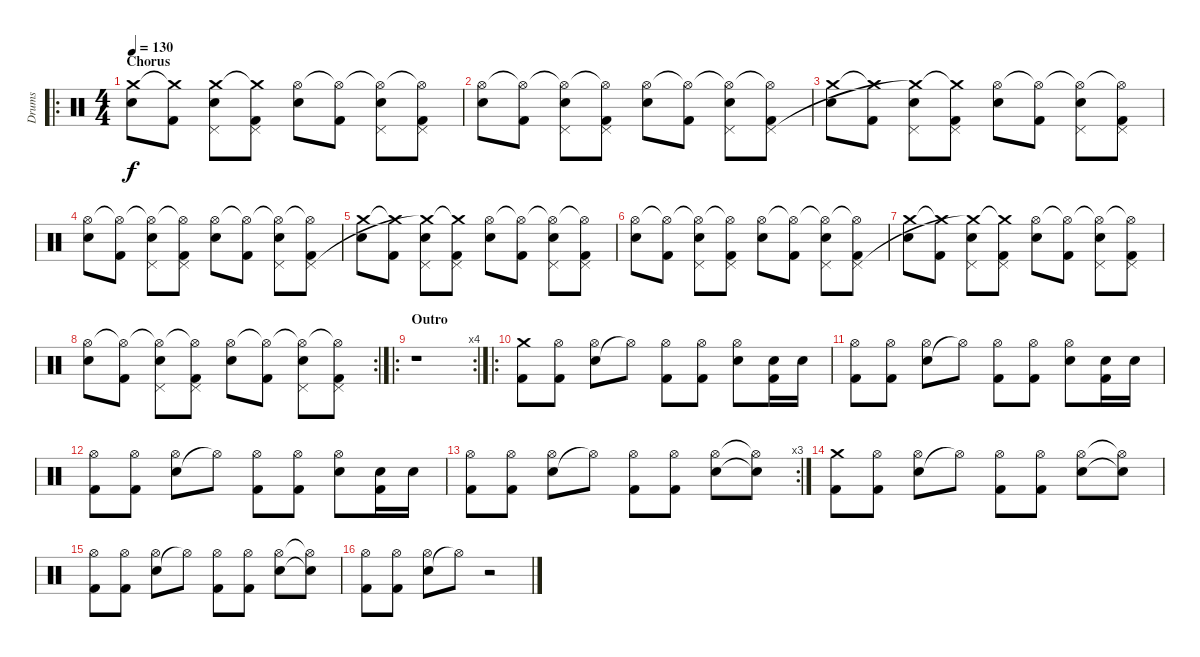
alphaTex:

\track ("Drums" "Drums") {instrument percussion}
\staff {score}
\articulation defaults
\ro
\ts (4 4)
\section ("" "Chorus")
\tempo 130
\clef neutral
\ks c
("Electric Snare (hit)" "Crash medium (hit)").8{dy f} ("Kick (hit) 2" "Crash medium (hit)"{t}).8 ("Electric Snare (hit)" "Pedal Hi-Hat (hit)" "Crash medium (hit)").8 ("Kick (hit) 2" "Pedal Hi-Hat (hit)" "Crash medium (hit)"{t}).8 ("Electric Snare (hit)" "Hi-Hat (open)").8 ("Kick (hit) 2" "Hi-Hat (open)"{t}).8 ("Electric Snare (hit)" "Hi-Hat (open)"{t} "Pedal Hi-Hat (hit)").8 ("Kick (hit) 2" "Hi-Hat (open)"{t} "Pedal Hi-Hat (hit)").8 |
("Electric Snare (hit)" "Hi-Hat (open)").8 ("Kick (hit) 2" "Hi-Hat (open)"{t}).8 ("Electric Snare (hit)" "Hi-Hat (open)"{t} "Pedal Hi-Hat (hit)").8 ("Kick (hit) 2" "Hi-Hat (open)"{t} "Pedal Hi-Hat (hit)").8 ("Electric Snare (hit)" "Hi-Hat (open)").8 ("Kick (hit) 2" "Hi-Hat (open)"{t}).8 ("Electric Snare (hit)" "Hi-Hat (open)"{t} "Pedal Hi-Hat (hit)").8 ("Kick (hit) 2" "Hi-Hat (open)"{t} "Pedal Hi-Hat (hit)").8 |
("Electric Snare (hit)" "Crash medium (hit)").8 ("Kick (hit) 2" "Crash medium (hit)"{t}).8 ("Electric Snare (hit)" "Pedal Hi-Hat (hit)" "Crash medium (hit)"{t}).8 ("Kick (hit) 2" "Pedal Hi-Hat (hit)" "Crash medium (hit)"{t}).8 ("Electric Snare (hit)" "Hi-Hat (open)").8 ("Kick (hit) 2" "Hi-Hat (open)"{t}).8 ("Electric Snare (hit)" "Hi-Hat (open)"{t} "Pedal Hi-Hat (hit)").8 ("Kick (hit) 2" "Hi-Hat (open)"{t} "Pedal Hi-Hat (hit)").8 |
("Electric Snare (hit)" "Hi-Hat (open)").8 ("Kick (hit) 2" "Hi-Hat (open)"{t}).8 ("Electric Snare (hit)" "Hi-Hat (open)"{t} "Pedal Hi-Hat (hit)").8 ("Kick (hit) 2" "Hi-Hat (open)"{t} "Pedal Hi-Hat (hit)").8 ("Electric Snare (hit)" "Hi-Hat (open)").8 ("Kick (hit) 2" "Hi-Hat (open)"{t}).8 ("Electric Snare (hit)" "Hi-Hat (open)"{t} "Pedal Hi-Hat (hit)").8 ("Kick (hit) 2" "Hi-Hat (open)"{t} "Pedal Hi-Hat (hit)").8 |
("Electric Snare (hit)" "Crash medium (hit)").8 ("Kick (hit) 2" "Crash medium (hit)"{t}).8 ("Electric Snare (hit)" "Pedal Hi-Hat (hit)" "Crash medium (hit)"{t}).8 ("Kick (hit) 2" "Pedal Hi-Hat (hit)" "Crash medium (hit)"{t}).8 ("Electric Snare (hit)" "Hi-Hat (open)").8 ("Kick (hit) 2" "Hi-Hat (open)"{t}).8 ("Electric Snare (hit)" "Hi-Hat (open)"{t} "Pedal Hi-Hat (hit)").8 ("Kick (hit) 2" "Hi-Hat (open)"{t} "Pedal Hi-Hat (hit)").8 |
("Electric Snare (hit)" "Hi-Hat (open)").8 ("Kick (hit) 2" "Hi-Hat (open)"{t}).8 ("Electric Snare (hit)" "Hi-Hat (open)"{t} "Pedal Hi-Hat (hit)").8 ("Kick (hit) 2" "Hi-Hat (open)"{t} "Pedal Hi-Hat (hit)").8 ("Electric Snare (hit)" "Hi-Hat (open)").8 ("Kick (hit) 2" "Hi-Hat (open)"{t}).8 ("Electric Snare (hit)" "Hi-Hat (open)"{t} "Pedal Hi-Hat (hit)").8 ("Kick (hit) 2" "Hi-Hat (open)"{t} "Pedal Hi-Hat (hit)").8 |
("Electric Snare (hit)" "Crash medium (hit)").8 ("Kick (hit) 2" "Crash medium (hit)"{t}).8 ("Electric Snare (hit)" "Pedal Hi-Hat (hit)" "Crash medium (hit)"{t}).8 ("Kick (hit) 2" "Pedal Hi-Hat (hit)" "Crash medium (hit)"{t}).8 ("Electric Snare (hit)" "Hi-Hat (open)").8 ("Kick (hit) 2" "Hi-Hat (open)"{t}).8 ("Electric Snare (hit)" "Hi-Hat (open)"{t} "Pedal Hi-Hat (hit)").8 ("Kick (hit) 2" "Hi-Hat (open)"{t} "Pedal Hi-Hat (hit)").8 |
\rc 2
("Electric Snare (hit)" "Hi-Hat (open)").8 ("Kick (hit) 2" "Hi-Hat (open)"{t}).8 ("Electric Snare (hit)" "Hi-Hat (open)"{t} "Pedal Hi-Hat (hit)").8 ("Kick (hit) 2" "Hi-Hat (open)"{t} "Pedal Hi-Hat (hit)").8 ("Electric Snare (hit)" "Hi-Hat (open)").8 ("Kick (hit) 2" "Hi-Hat (open)"{t}).8 ("Electric Snare (hit)" "Hi-Hat (open)"{t} "Pedal Hi-Hat (hit)").8 ("Kick (hit) 2" "Hi-Hat (open)"{t} "Pedal Hi-Hat (hit)").8 |
\ro
\rc 4
\section ("" "Outro")
r.1 |
\ro
("Kick (hit) 2" "Crash medium (hit)").8 ("Kick (hit) 2" "Hi-Hat (open)").8 ("Snare (hit) 2" "Hi-Hat (open)").8 "Hi-Hat (open)"{t}.8 ("Kick (hit) 2" "Hi-Hat (open)").8 ("Kick (hit) 2" "Hi-Hat (open)").8 ("Snare (hit) 2" "Hi-Hat (open)").8 ("Kick (hit) 2" "Snare (hit) 2").16 "Snare (hit) 2".16 |
("Kick (hit) 2" "Hi-Hat (open)").8 ("Kick (hit) 2" "Hi-Hat (open)").8 ("Snare (hit) 2" "Hi-Hat (open)").8 "Hi-Hat (open)"{t}.8 ("Kick (hit) 2" "Hi-Hat (open)").8 ("Kick (hit) 2" "Hi-Hat (open)").8 ("Snare (hit) 2" "Hi-Hat (open)").8 ("Kick (hit) 2" "Snare (hit) 2").16 "Snare (hit) 2".16 |
("Kick (hit) 2" "Hi-Hat (open)").8 ("Kick (hit) 2" "Hi-Hat (open)").8 ("Snare (hit) 2" "Hi-Hat (open)").8 "Hi-Hat (open)"{t}.8 ("Kick (hit) 2" "Hi-Hat (open)").8 ("Kick (hit) 2" "Hi-Hat (open)").8 ("Snare (hit) 2" "Hi-Hat (open)").8 ("Kick (hit) 2" "Snare (hit) 2").16 "Snare (hit) 2".16 |
\rc 3
("Kick (hit) 2" "Hi-Hat (open)").8 ("Kick (hit) 2" "Hi-Hat (open)").8 ("Snare (hit) 2" "Hi-Hat (open)").8 "Hi-Hat (open)"{t}.8 ("Kick (hit) 2" "Hi-Hat (open)").8 ("Kick (hit) 2" "Hi-Hat (open)").8 ("Snare (hit) 2" "Hi-Hat (open)").8 ("Snare (hit) 2"{t} "Hi-Hat (open)"{t}).8 |
("Kick (hit) 2" "Crash medium (hit)").8 ("Kick (hit) 2" "Hi-Hat (open)").8 ("Snare (hit) 2" "Hi-Hat (open)").8 "Hi-Hat (open)"{t}.8 ("Kick (hit) 2" "Hi-Hat (open)").8 ("Kick (hit) 2" "Hi-Hat (open)").8 ("Snare (hit) 2" "Hi-Hat (open)").8 ("Snare (hit) 2"{t} "Hi-Hat (open)"{t}).8 |
("Kick (hit) 2" "Hi-Hat (open)").8 ("Kick (hit) 2" "Hi-Hat (open)").8 ("Snare (hit) 2" "Hi-Hat (open)").8 "Hi-Hat (open)"{t}.8 ("Kick (hit) 2" "Hi-Hat (open)").8 ("Kick (hit) 2" "Hi-Hat (open)").8 ("Snare (hit) 2" "Hi-Hat (open)").8 ("Snare (hit) 2"{t} "Hi-Hat (open)"{t}).8 |
("Kick (hit) 2" "Hi-Hat (open)").8 ("Kick (hit) 2" "Hi-Hat (open)").8 ("Snare (hit) 2" "Hi-Hat (open)").8 "Hi-Hat (open)"{t}.8 r.2
